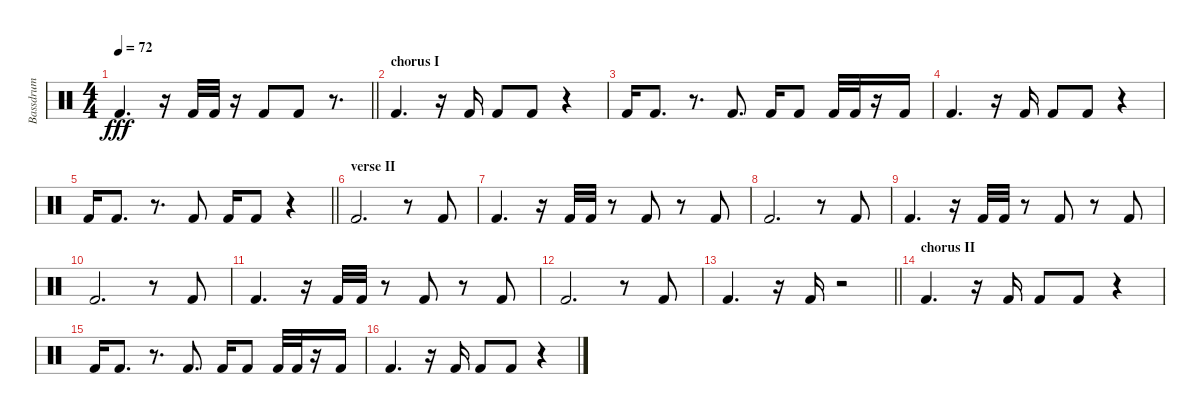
\track ("Bassdrum" "Bassdrum") {instrument percussion}
\staff {score}
\articulation defaults
\ts (4 4)
\tempo 72
\clef neutral
\barLineRight lightlight
\ks c "Kick (hit) 2".4{d dy fff}
r.16 "Kick (hit) 2".32 "Kick (hit) 2".32 r.16 "Kick (hit) 2".8 "Kick (hit) 2".8 r.8{d} |
\section ("" "chorus I")
"Kick (hit) 2".4{d} r.16 "Kick (hit) 2".16 "Kick (hit) 2".8 "Kick (hit) 2".8 r.4 |
"Kick (hit) 2".16 "Kick (hit) 2".8{d} r.8{d} "Kick (hit) 2".8{d} "Kick (hit) 2".16 "Kick (hit) 2".8 "Kick (hit) 2".32 "Kick (hit) 2".32 r.16 "Kick (hit) 2".16 |
"Kick (hit) 2".4{d} r.16 "Kick (hit) 2".16 "Kick (hit) 2".8 "Kick (hit) 2".8 r.4 |
\barLineRight lightlight "Kick (hit) 2".16 "Kick (hit) 2".8{d}
r.8{d} "Kick (hit) 2".8 "Kick (hit) 2".16 "Kick (hit) 2".8 r.4 |
\section ("" "verse II")
"Kick (hit) 2".2{d} r.8 "Kick (hit) 2".8 |
"Kick (hit) 2".4{d} r.16 "Kick (hit) 2".32 "Kick (hit) 2".32 r.8 "Kick (hit) 2".8 r.8 "Kick (hit) 2".8 |
"Kick (hit) 2".2{d} r.8 "Kick (hit) 2".8 |
"Kick (hit) 2".4{d} r.16 "Kick (hit) 2".32 "Kick (hit) 2".32 r.8 "Kick (hit) 2".8 r.8 "Kick (hit) 2".8 |
"Kick (hit) 2".2{d} r.8 "Kick (hit) 2".8 |
"Kick (hit) 2".4{d} r.16 "Kick (hit) 2".32 "Kick (hit) 2".32 r.8 "Kick (hit) 2".8 r.8 "Kick (hit) 2".8 |
"Kick (hit) 2".2{d} r.8 "Kick (hit) 2".8 |
\barLineRight lightlight "Kick (hit) 2".4{d}
r.16 "Kick (hit) 2".16 r.2 |
\section ("" "chorus II")
"Kick (hit) 2".4{d} r.16 "Kick (hit) 2".16 "Kick (hit) 2".8 "Kick (hit) 2".8 r.4 |
"Kick (hit) 2".16 "Kick (hit) 2".8{d} r.8{d} "Kick (hit) 2".8{d} "Kick (hit) 2".16 "Kick (hit) 2".8 "Kick (hit) 2".32 "Kick (hit) 2".32 r.16 "Kick (hit) 2".16 |
"Kick (hit) 2".4{d} r.16 "Kick (hit) 2".16 "Kick (hit) 2".8 "Kick (hit) 2".8 r.4
